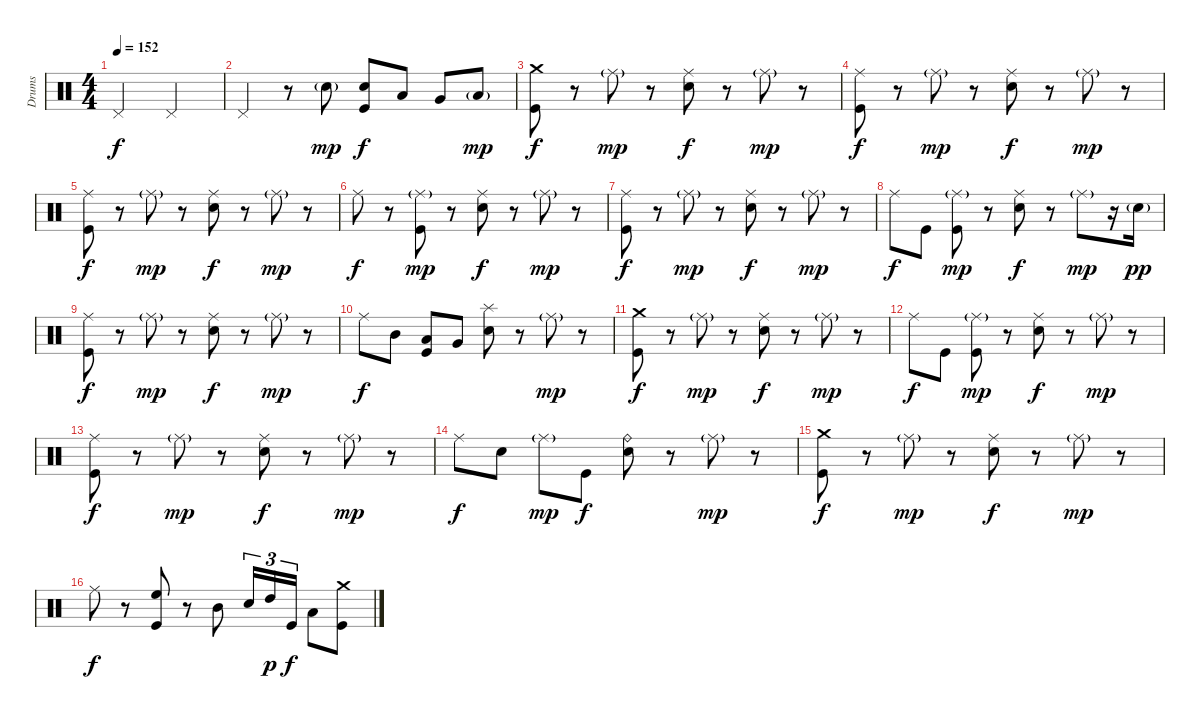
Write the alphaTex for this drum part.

\track ("Drums" "Drums") {instrument percussion}
\staff {score}
\articulation defaults
\ts (4 4)
\tempo 152
\clef neutral
\ks c "Pedal Hi-Hat (hit)".2{dy f} "Pedal Hi-Hat (hit)".2
|
"Pedal Hi-Hat (hit)".4 r.8 "Electric Snare (hit)"{g}.8{dy mp} ("Electric Snare (hit)" "Kick (hit)").8{dy f} "Low Tom (hit)".8 "Very Low Tom (hit)".8 "Low Floor Tom (hit)"{g}.8{dy mp} |
("Crash medium (hit)" "Kick (hit)").8{dy f} r.8 "Ride (middle)"{g}.8{dy mp} r.8 ("Ride (middle)" "Electric Snare (hit)").8{dy f} r.8 "Ride (middle)"{g}.8{dy mp} r.8 |
("Ride (middle)" "Kick (hit)").8{dy f} r.8 "Ride (middle)"{g}.8{dy mp} r.8 ("Ride (middle)" "Electric Snare (hit)").8{dy f} r.8 "Ride (middle)"{g}.8{dy mp} r.8 |
("Ride (middle)" "Kick (hit)").8{dy f} r.8 "Ride (middle)"{g}.8{dy mp} r.8 ("Ride (middle)" "Electric Snare (hit)").8{dy f} r.8 "Ride (middle)"{g}.8{dy mp} r.8 |
"Ride (middle)".8{dy f} r.8 ("Ride (middle)"{g} "Kick (hit)").8{dy mp} r.8 ("Ride (middle)" "Electric Snare (hit)").8{dy f} r.8 "Ride (middle)"{g}.8{dy mp} r.8 |
("Ride (middle)" "Kick (hit)").8{dy f} r.8 "Ride (middle)"{g}.8{dy mp} r.8 ("Ride (middle)" "Electric Snare (hit)").8{dy f} r.8 "Ride (middle)"{g}.8{dy mp} r.8 |
"Ride (middle)".8{dy f} "Kick (hit)".8 ("Ride (middle)"{g} "Kick (hit)").8{dy mp} r.8 ("Ride (middle)" "Electric Snare (hit)").8{dy f} r.8 "Ride (middle)"{g}.8{dy mp} r.16 "Snare (hit) 2"{g}.16{dy pp} |
("Ride (middle)" "Kick (hit)").8{dy f} r.8 "Ride (middle)"{g}.8{dy mp} r.8 ("Ride (middle)" "Electric Snare (hit)").8{dy f} r.8 "Ride (middle)"{g}.8{dy mp} r.8 |
"Ride (middle)".8{dy f} "Mid Tom (hit)".8 ("Low Tom (hit)" "Kick (hit)").8 "Very Low Tom (hit)".8 ("Splash (hit)" "Electric Snare (hit)").8 r.8 "Ride (middle)"{g}.8{dy mp} r.8 |
("Crash medium (hit)" "Kick (hit)").8{dy f} r.8 "Ride (middle)"{g}.8{dy mp} r.8 ("Ride (middle)" "Electric Snare (hit)").8{dy f} r.8 "Ride (middle)"{g}.8{dy mp} r.8 |
"Ride (middle)".8{dy f} "Kick (hit)".8 ("Ride (middle)"{g} "Kick (hit)").8{dy mp} r.8 ("Ride (middle)" "Electric Snare (hit)").8{dy f} r.8 "Ride (middle)"{g}.8{dy mp} r.8 |
("Ride (middle)" "Kick (hit)").8{dy f} r.8 "Ride (middle)"{g}.8{dy mp} r.8 ("Ride (middle)" "Electric Snare (hit)").8{dy f} r.8 "Ride (middle)"{g}.8{dy mp} r.8 |
"Ride (middle)".8{dy f} "Electric Snare (hit)".8 "Ride (middle)"{g}.8{dy mp} "Kick (hit)".8{dy f} ("Ride (bell)" "Electric Snare (hit)").8 r.8 "Ride (middle)"{g}.8{dy mp} r.8 |
("Crash medium (hit)" "Kick (hit)").8{dy f} r.8 "Ride (middle)"{g}.8{dy mp} r.8 ("Ride (middle)" "Electric Snare (hit)").8{dy f} r.8 "Ride (middle)"{g}.8{dy mp} r.8 |
"Ride (middle)".8{dy f} r.8 ("High Floor Tom (hit)" "Kick (hit)").8 r.8 "Mid Tom (hit)".8 "Electric Snare (hit)".16{tu (3 2)} "High Tom (hit)".16{tu (3 2) dy p} "Kick (hit)".16{tu (3 2) dy f} "Low Tom (hit)".8 ("Crash medium (hit)" "Kick (hit)").8
